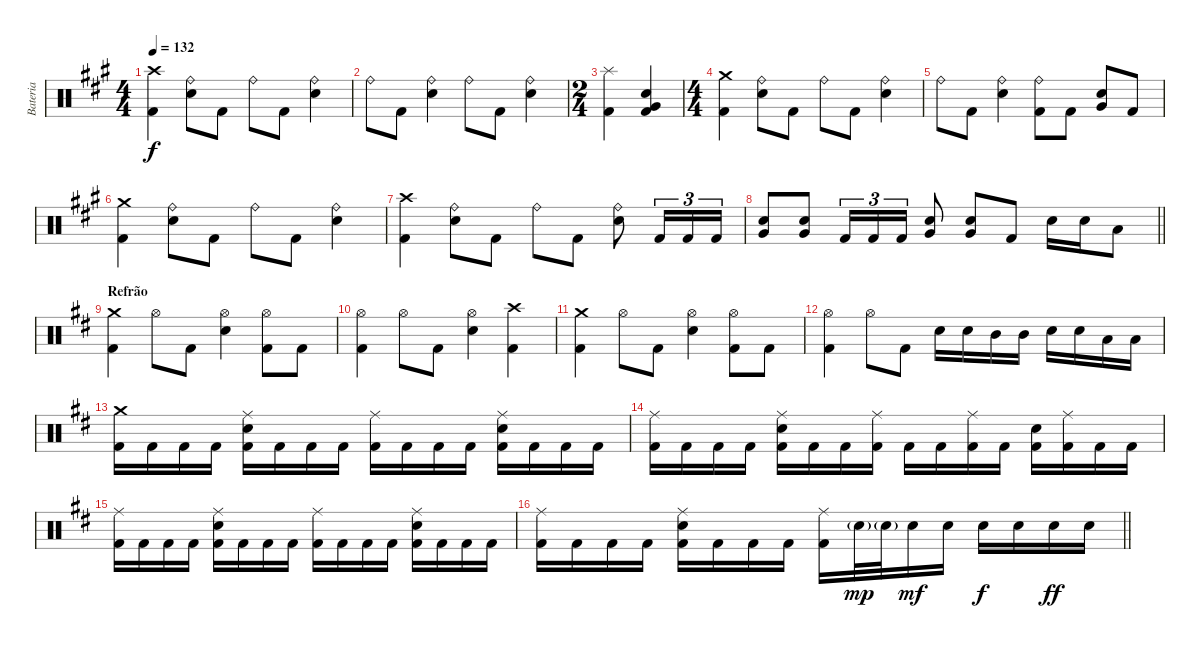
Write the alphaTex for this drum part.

\track ("Bateria" "Bateria") {instrument percussion}
\staff {score}
\articulation defaults
\ts (4 4)
\tempo 132
\clef neutral
\ks f#minor
("Crash high (hit)" "Kick (hit) 2").4{dy f} ("Ride (bell)" "Electric Snare (hit)").8 "Kick (hit) 2".8 "Ride (bell)".8 "Kick (hit) 2".8 ("Ride (bell)" "Electric Snare (hit)").4 |
"Ride (bell)".8 "Kick (hit) 2".8 ("Ride (bell)" "Electric Snare (hit)").4 "Ride (bell)".8 "Kick (hit) 2".8 ("Ride (bell)" "Electric Snare (hit)").4 |
\ts (2 4)
("Splash (hit)" "Kick (hit) 2").4 ("Electric Snare (hit)" "Very Low Tom (hit)" "Kick (hit) 2").4 |
\ts (4 4)
("Crash medium (hit)" "Kick (hit) 2").4 ("Ride (bell)" "Electric Snare (hit)").8 "Kick (hit) 2".8 "Ride (bell)".8 "Kick (hit) 2".8 ("Ride (bell)" "Electric Snare (hit)").4 |
"Ride (bell)".8 "Kick (hit) 2".8 ("Ride (bell)" "Electric Snare (hit)").4 ("Ride (bell)" "Kick (hit) 2").8 "Kick (hit) 2".8 ("Very Low Tom (hit)" "Electric Snare (hit)").8 "Kick (hit) 2".8 |
("Crash medium (hit)" "Kick (hit) 2").4 ("Ride (bell)" "Electric Snare (hit)").8 "Kick (hit) 2".8 "Ride (bell)".8 "Kick (hit) 2".8 ("Ride (bell)" "Electric Snare (hit)").4 |
("Crash high (hit)" "Kick (hit) 2").4 ("Ride (bell)" "Electric Snare (hit)").8 "Kick (hit) 2".8 "Ride (bell)".8 "Kick (hit) 2".8 ("Ride (bell)" "Electric Snare (hit)").8 "Kick (hit) 2".16{tu (3 2)} "Kick (hit) 2".16{tu (3 2)} "Kick (hit) 2".16{tu (3 2)} |
\barLineRight lightlight
("Very Low Tom (hit)" "Electric Snare (hit)").8 ("Very Low Tom (hit)" "Electric Snare (hit)").8 "Kick (hit) 2".16{tu (3 2)} "Kick (hit) 2".16{tu (3 2)} "Kick (hit) 2".16{tu (3 2)} ("Very Low Tom (hit)" "Electric Snare (hit)").8 ("Very Low Tom (hit)" "Electric Snare (hit)").8 "Kick (hit) 2".8 "Electric Snare (hit)".16 "Electric Snare (hit)".16 "Low Tom (hit)".8 |
\section ("" "Refrão")
\ks bminor
("Crash medium (hit)" "Kick (hit) 2").4 "Hi-Hat (open)".8 "Kick (hit) 2".8 ("Hi-Hat (open)" "Electric Snare (hit)").4 ("Hi-Hat (open)" "Kick (hit) 2").8 "Kick (hit) 2".8 |
("Hi-Hat (open)" "Kick (hit) 2").4 "Hi-Hat (open)".8 "Kick (hit) 2".8 ("Hi-Hat (open)" "Electric Snare (hit)").4 ("Crash high (hit)" "Kick (hit) 2").4 |
("Crash medium (hit)" "Kick (hit) 2").4 "Hi-Hat (open)".8 "Kick (hit) 2".8 ("Hi-Hat (open)" "Electric Snare (hit)").4 ("Hi-Hat (open)" "Kick (hit) 2").8 "Kick (hit) 2".8 |
("Hi-Hat (open)" "Kick (hit) 2").4 "Hi-Hat (open)".8 "Kick (hit) 2".8 "Electric Snare (hit)".16 "Electric Snare (hit)".16 "Mid Tom (hit)".16 "Mid Tom (hit)".16 "Electric Snare (hit)".16 "Electric Snare (hit)".16 "Low Tom (hit)".16 "Low Tom (hit)".16 |
("Crash medium (hit)" "Kick (hit) 2").16 "Kick (hit) 2".16 "Kick (hit) 2".16 "Kick (hit) 2".16 ("Ride (middle)" "Electric Snare (hit)" "Kick (hit) 2").16 "Kick (hit) 2".16 "Kick (hit) 2".16 "Kick (hit) 2".16 ("Ride (middle)" "Kick (hit) 2").16 "Kick (hit) 2".16 "Kick (hit) 2".16 "Kick (hit) 2".16 ("Ride (middle)" "Electric Snare (hit)" "Kick (hit) 2").16 "Kick (hit) 2".16 "Kick (hit) 2".16 "Kick (hit) 2".16 |
("Ride (middle)" "Kick (hit) 2").16 "Kick (hit) 2".16 "Kick (hit) 2".16 "Kick (hit) 2".16 ("Ride (middle)" "Electric Snare (hit)" "Kick (hit) 2").16 "Kick (hit) 2".16 "Kick (hit) 2".16 ("Ride (middle)" "Kick (hit) 2").16 "Kick (hit) 2".16 "Kick (hit) 2".16 ("Ride (middle)" "Kick (hit) 2").16 "Kick (hit) 2".16 ("Electric Snare (hit)" "Kick (hit) 2").16 ("Ride (middle)" "Kick (hit) 2").16 "Kick (hit) 2".16 "Kick (hit) 2".16 |
("Ride (middle)" "Kick (hit) 2").16 "Kick (hit) 2".16 "Kick (hit) 2".16 "Kick (hit) 2".16 ("Ride (middle)" "Electric Snare (hit)" "Kick (hit) 2").16 "Kick (hit) 2".16 "Kick (hit) 2".16 "Kick (hit) 2".16 ("Ride (middle)" "Kick (hit) 2").16 "Kick (hit) 2".16 "Kick (hit) 2".16 "Kick (hit) 2".16 ("Ride (middle)" "Electric Snare (hit)" "Kick (hit) 2").16 "Kick (hit) 2".16 "Kick (hit) 2".16 "Kick (hit) 2".16 |
\barLineRight lightlight
("Ride (middle)" "Kick (hit) 2").16 "Kick (hit) 2".16 "Kick (hit) 2".16 "Kick (hit) 2".16 ("Ride (middle)" "Electric Snare (hit)" "Kick (hit) 2").16 "Kick (hit) 2".16 "Kick (hit) 2".16 "Kick (hit) 2".16 ("Ride (middle)" "Kick (hit) 2").16 "Electric Snare (hit)"{g}.32{dy mp} "Electric Snare (hit)"{g}.32 "Electric Snare (hit)".16{dy mf} "Electric Snare (hit)".16 "Electric Snare (hit)".16{dy f} "Electric Snare (hit)".16 "Electric Snare (hit)".16{dy ff} "Electric Snare (hit)".16
